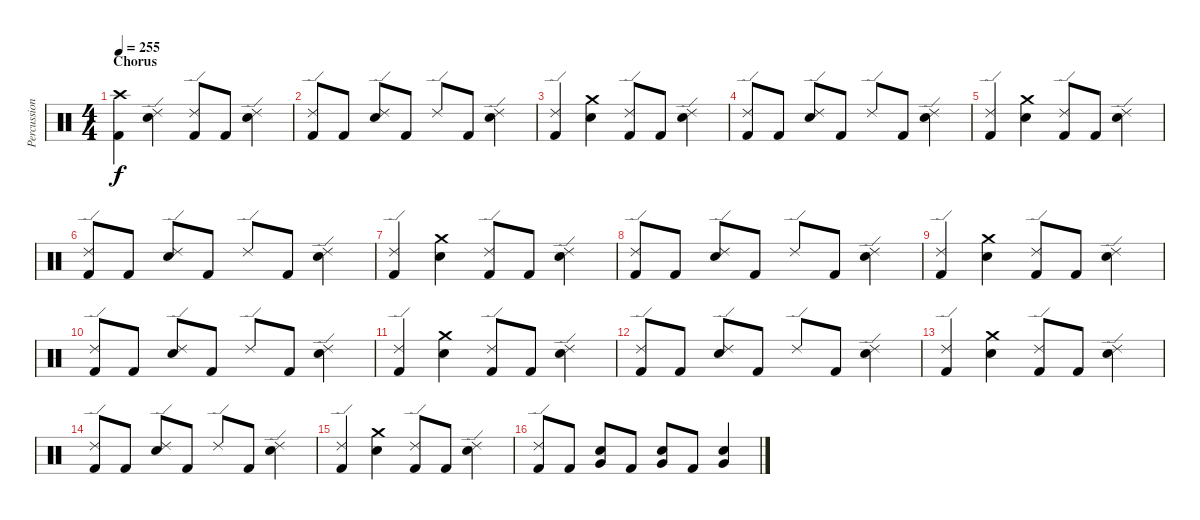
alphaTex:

\track ("Percussion" "Percussion") {instrument percussion}
\staff {score}
\articulation defaults
\ts (4 4)
\section ("" "Chorus")
\tempo 255
\clef neutral
\ks c
("Crash high (hit)" "Kick (hit) 2").4{dy f} ("Ride (edge) 2" "Electric Snare (hit)").4 ("Ride (edge) 2" "Kick (hit) 2").8 "Kick (hit) 2".8 ("Ride (edge) 2" "Electric Snare (hit)").4 |
("Ride (edge) 2" "Kick (hit) 2").8 "Kick (hit) 2".8 ("Ride (edge) 2" "Electric Snare (hit)").8 "Kick (hit) 2".8 "Ride (edge) 2".8 "Kick (hit) 2".8 ("Ride (edge) 2" "Electric Snare (hit)").4 |
("Ride (edge) 2" "Kick (hit) 2").4 ("Crash medium (hit)" "Electric Snare (hit)").4 ("Ride (edge) 2" "Kick (hit) 2").8 "Kick (hit) 2".8 ("Ride (edge) 2" "Electric Snare (hit)").4 |
("Ride (edge) 2" "Kick (hit) 2").8 "Kick (hit) 2".8 ("Ride (edge) 2" "Electric Snare (hit)").8 "Kick (hit) 2".8 "Ride (edge) 2".8 "Kick (hit) 2".8 ("Ride (edge) 2" "Electric Snare (hit)").4 |
("Ride (edge) 2" "Kick (hit) 2").4 ("Crash medium (hit)" "Electric Snare (hit)").4 ("Ride (edge) 2" "Kick (hit) 2").8 "Kick (hit) 2".8 ("Ride (edge) 2" "Electric Snare (hit)").4 |
("Ride (edge) 2" "Kick (hit) 2").8 "Kick (hit) 2".8 ("Ride (edge) 2" "Electric Snare (hit)").8 "Kick (hit) 2".8 "Ride (edge) 2".8 "Kick (hit) 2".8 ("Ride (edge) 2" "Electric Snare (hit)").4 |
("Ride (edge) 2" "Kick (hit) 2").4 ("Crash medium (hit)" "Electric Snare (hit)").4 ("Ride (edge) 2" "Kick (hit) 2").8 "Kick (hit) 2".8 ("Ride (edge) 2" "Electric Snare (hit)").4 |
("Ride (edge) 2" "Kick (hit) 2").8 "Kick (hit) 2".8 ("Ride (edge) 2" "Electric Snare (hit)").8 "Kick (hit) 2".8 "Ride (edge) 2".8 "Kick (hit) 2".8 ("Ride (edge) 2" "Electric Snare (hit)").4 |
("Ride (edge) 2" "Kick (hit) 2").4 ("Crash medium (hit)" "Electric Snare (hit)").4 ("Ride (edge) 2" "Kick (hit) 2").8 "Kick (hit) 2".8 ("Ride (edge) 2" "Electric Snare (hit)").4 |
("Ride (edge) 2" "Kick (hit) 2").8 "Kick (hit) 2".8 ("Ride (edge) 2" "Electric Snare (hit)").8 "Kick (hit) 2".8 "Ride (edge) 2".8 "Kick (hit) 2".8 ("Ride (edge) 2" "Electric Snare (hit)").4 |
("Ride (edge) 2" "Kick (hit) 2").4 ("Crash medium (hit)" "Electric Snare (hit)").4 ("Ride (edge) 2" "Kick (hit) 2").8 "Kick (hit) 2".8 ("Ride (edge) 2" "Electric Snare (hit)").4 |
("Ride (edge) 2" "Kick (hit) 2").8 "Kick (hit) 2".8 ("Ride (edge) 2" "Electric Snare (hit)").8 "Kick (hit) 2".8 "Ride (edge) 2".8 "Kick (hit) 2".8 ("Ride (edge) 2" "Electric Snare (hit)").4 |
("Ride (edge) 2" "Kick (hit) 2").4 ("Crash medium (hit)" "Electric Snare (hit)").4 ("Ride (edge) 2" "Kick (hit) 2").8 "Kick (hit) 2".8 ("Ride (edge) 2" "Electric Snare (hit)").4 |
("Ride (edge) 2" "Kick (hit) 2").8 "Kick (hit) 2".8 ("Ride (edge) 2" "Electric Snare (hit)").8 "Kick (hit) 2".8 "Ride (edge) 2".8 "Kick (hit) 2".8 ("Ride (edge) 2" "Electric Snare (hit)").4 |
("Ride (edge) 2" "Kick (hit) 2").4 ("Crash medium (hit)" "Electric Snare (hit)").4 ("Ride (edge) 2" "Kick (hit) 2").8 "Kick (hit) 2".8 ("Ride (edge) 2" "Electric Snare (hit)").4 |
("Ride (edge) 2" "Kick (hit) 2").8 "Kick (hit) 2".8 ("Electric Snare (hit)" "Very Low Tom (hit)").8 "Kick (hit) 2".8 ("Electric Snare (hit)" "Very Low Tom (hit)").8 "Kick (hit) 2".8 ("Electric Snare (hit)" "Very Low Tom (hit)").4
